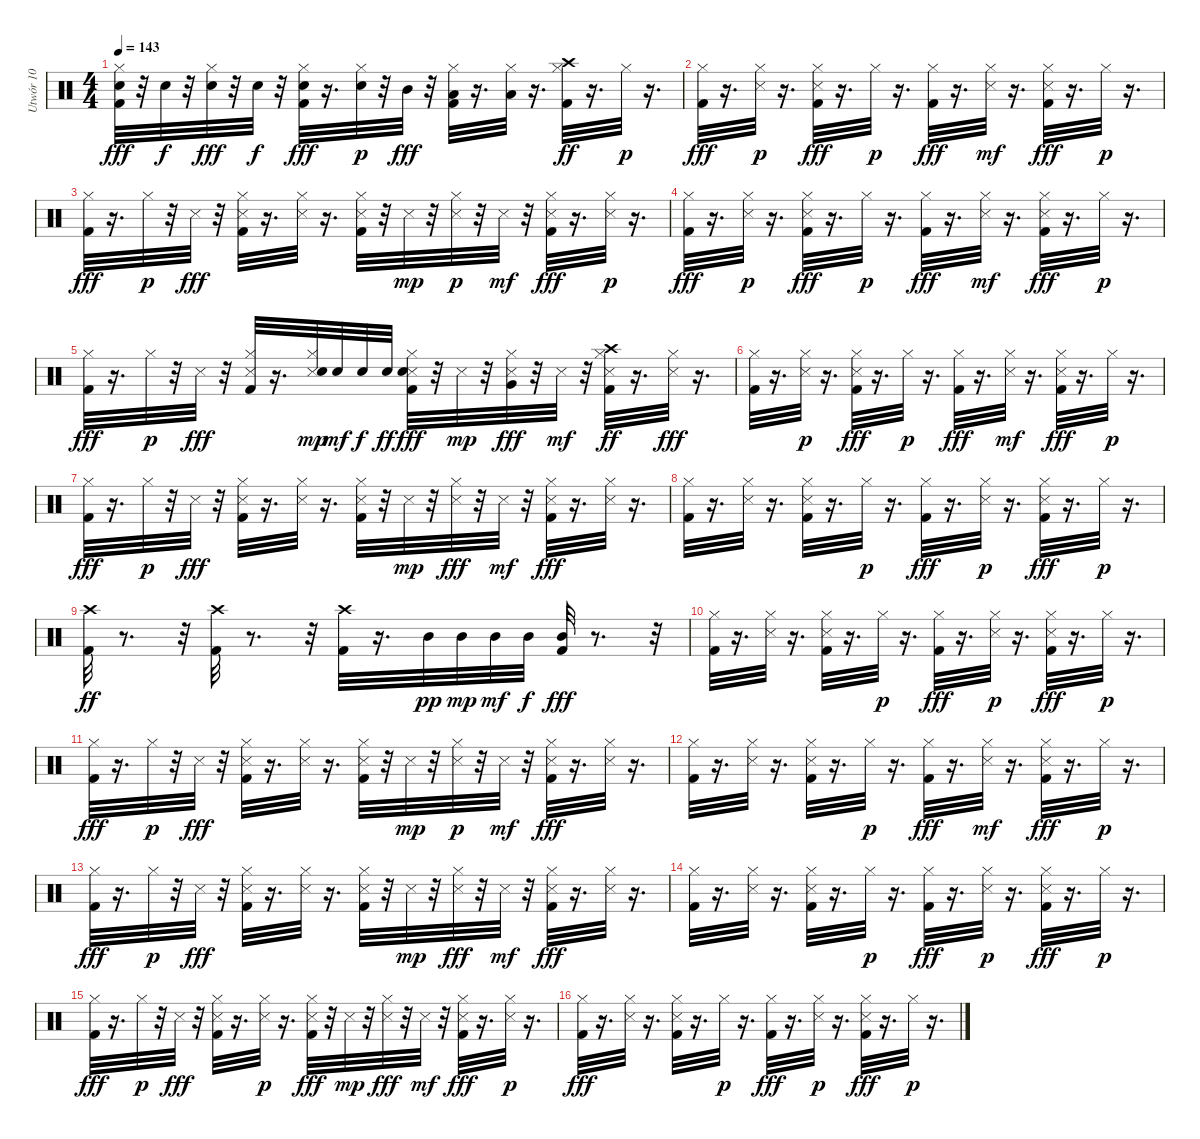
\track ("Utwór 10" "Utwór 10") {instrument percussion}
\staff {score}
\articulation defaults
\ts (4 4)
\tempo 143
\clef neutral
\ks c
("Kick (hit) 2" "Electric Snare (hit)" "Hi-Hat (closed)").32{dy fff} r.32 "Electric Snare (hit)".32{dy f} r.32 ("Hi-Hat (closed)" "Electric Snare (hit)").32{dy fff} r.32 "Electric Snare (hit)".32{dy f} r.32 ("Kick (hit) 2" "Hi-Hat (closed)" "Electric Snare (hit)").32{dy fff} r.16{d} ("Hi-Hat (closed)" "Electric Snare (hit)").32{dy p} r.32 "Mid Tom (hit)".32{dy fff} r.32 ("Kick (hit) 2" "Low Tom (hit)" "Hi-Hat (closed)").32 r.16{d} ("Hi-Hat (closed)" "Low Tom (hit)").32 r.16{d} ("Kick (hit) 2" "Crash high (hit)" "Hi-Hat (closed)").32{dy ff} r.16{d} "Hi-Hat (closed)".32{dy p} r.16{d} |
("Kick (hit) 2" "Hi-Hat (closed)").32{dy fff} r.16{d} ("Snare (side stick) 3" "Hi-Hat (closed)").32{dy p} r.16{d} ("Snare (side stick) 3" "Hi-Hat (closed)" "Kick (hit) 2").32{dy fff} r.16{d} "Hi-Hat (closed)".32{dy p} r.16{d} ("Kick (hit) 2" "Hi-Hat (closed)").32{dy fff} r.16{d} ("Hi-Hat (closed)" "Snare (side stick) 3").32{dy mf} r.16{d} ("Snare (side stick) 3" "Hi-Hat (closed)" "Kick (hit) 2").32{dy fff} r.16{d} "Hi-Hat (closed)".32{dy p} r.16{d} |
("Hi-Hat (closed)" "Kick (hit) 2").32{dy fff} r.16{d} "Hi-Hat (closed)".32{dy p} r.32 "Snare (side stick) 3".32{dy fff} r.32 ("Hi-Hat (closed)" "Kick (hit) 2" "Snare (side stick) 3").32 r.16{d} ("Hi-Hat (closed)" "Snare (side stick) 3").32 r.16{d} ("Kick (hit) 2" "Snare (side stick) 3" "Hi-Hat (closed)").32 r.32 "Snare (side stick) 3".32{dy mp} r.32 ("Snare (side stick) 3" "Hi-Hat (closed)").32{dy p} r.32 "Snare (side stick) 3".32{dy mf} r.32 ("Kick (hit) 2" "Hi-Hat (closed)" "Snare (side stick) 3").32{dy fff} r.16{d} ("Snare (side stick) 3" "Hi-Hat (closed)").32{dy p} r.16{d} |
("Hi-Hat (closed)" "Kick (hit) 2").32{dy fff} r.16{d} ("Snare (side stick) 3" "Hi-Hat (closed)").32{dy p} r.16{d} ("Hi-Hat (closed)" "Kick (hit) 2" "Snare (side stick) 3").32{dy fff} r.16{d} "Hi-Hat (closed)".32{dy p} r.16{d} ("Hi-Hat (closed)" "Kick (hit) 2").32{dy fff} r.16{d} ("Hi-Hat (closed)" "Snare (side stick) 3").32{dy mf} r.16{d} ("Snare (side stick) 3" "Hi-Hat (closed)" "Kick (hit) 2").32{dy fff} r.16{d} "Hi-Hat (closed)".32{dy p} r.16{d} |
("Hi-Hat (closed)" "Kick (hit) 2").32{dy fff} r.16{d} "Hi-Hat (closed)".32{dy p} r.32 "Snare (side stick) 3".32{dy fff} r.32 ("Kick (hit) 2" "Snare (side stick) 3" "Hi-Hat (closed)").32 r.16{d} ("Snare (side stick) 3" "Hi-Hat (closed)" "Electric Snare (hit)").32{dy mp} "Electric Snare (hit)".32{dy mf} "Electric Snare (hit)".32{dy f} "Electric Snare (hit)".32{dy ff} ("Snare (side stick) 3" "Electric Snare (hit)" "Kick (hit) 2" "Hi-Hat (closed)").32{dy fff} r.32 "Snare (side stick) 3".32{dy mp} r.32 ("Hi-Hat (closed)" "Snare (side stick) 3" "Very Low Tom (hit)").32{dy fff} r.32 "Snare (side stick) 3".32{dy mf} r.32 ("Hi-Hat (closed)" "Kick (hit) 2" "Snare (side stick) 3" "Crash high (hit)").32{dy ff} r.16{d} ("Hi-Hat (closed)" "Snare (side stick) 3").32{dy fff} r.16{d} |
("Kick (hit) 2" "Hi-Hat (closed)").32 r.16{d} ("Snare (side stick) 3" "Hi-Hat (closed)").32{dy p} r.16{d} ("Snare (side stick) 3" "Hi-Hat (closed)" "Kick (hit) 2").32{dy fff} r.16{d} "Hi-Hat (closed)".32{dy p} r.16{d} ("Kick (hit) 2" "Hi-Hat (closed)").32{dy fff} r.16{d} ("Hi-Hat (closed)" "Snare (side stick) 3").32{dy mf} r.16{d} ("Kick (hit) 2" "Hi-Hat (closed)" "Snare (side stick) 3").32{dy fff} r.16{d} "Hi-Hat (closed)".32{dy p} r.16{d} |
("Kick (hit) 2" "Hi-Hat (closed)").32{dy fff} r.16{d} "Hi-Hat (closed)".32{dy p} r.32 "Snare (side stick) 3".32{dy fff} r.32 ("Snare (side stick) 3" "Hi-Hat (closed)" "Kick (hit) 2").32 r.16{d} ("Hi-Hat (closed)" "Snare (side stick) 3").32 r.16{d} ("Kick (hit) 2" "Snare (side stick) 3" "Hi-Hat (closed)").32 r.32 "Snare (side stick) 3".32{dy mp} r.32 ("Hi-Hat (closed)" "Snare (side stick) 3").32{dy fff} r.32 "Snare (side stick) 3".32{dy mf} r.32 ("Hi-Hat (closed)" "Kick (hit) 2" "Snare (side stick) 3").32{dy fff} r.16{d} ("Hi-Hat (closed)" "Snare (side stick) 3").32 r.16{d} |
("Hi-Hat (closed)" "Kick (hit) 2").32 r.16{d} ("Hi-Hat (closed)" "Snare (side stick) 3").32 r.16{d} ("Kick (hit) 2" "Snare (side stick) 3" "Hi-Hat (closed)").32 r.16{d} "Hi-Hat (closed)".32{dy p} r.16{d} ("Kick (hit) 2" "Hi-Hat (closed)").32{dy fff} r.16{d} ("Snare (side stick) 3" "Hi-Hat (closed)").32{dy p} r.16{d} ("Kick (hit) 2" "Hi-Hat (closed)" "Snare (side stick) 3").32{dy fff} r.16{d} "Hi-Hat (closed)".32{dy p} r.16{d} |
("Kick (hit) 2" "Crash high (hit)").32{dy ff} r.8{d} r.32 ("Kick (hit) 2" "Crash high (hit)").32 r.8{d} r.32 ("Kick (hit) 2" "Crash high (hit)").32 r.16{d} "Mid Tom (hit)".32{dy pp} "Mid Tom (hit)".32{dy mp} "Mid Tom (hit)".32{dy mf} "Mid Tom (hit)".32{dy f} ("Mid Tom (hit)" "Kick (hit) 2").32{dy fff} r.8{d} r.32 |
("Hi-Hat (closed)" "Kick (hit) 2").32 r.16{d} ("Hi-Hat (closed)" "Snare (side stick) 3").32 r.16{d} ("Kick (hit) 2" "Snare (side stick) 3" "Hi-Hat (closed)").32 r.16{d} "Hi-Hat (closed)".32{dy p} r.16{d} ("Kick (hit) 2" "Hi-Hat (closed)").32{dy fff} r.16{d} ("Snare (side stick) 3" "Hi-Hat (closed)").32{dy p} r.16{d} ("Kick (hit) 2" "Snare (side stick) 3" "Hi-Hat (closed)").32{dy fff} r.16{d} "Hi-Hat (closed)".32{dy p} r.16{d} |
("Kick (hit) 2" "Hi-Hat (closed)").32{dy fff} r.16{d} "Hi-Hat (closed)".32{dy p} r.32 "Snare (side stick) 3".32{dy fff} r.32 ("Kick (hit) 2" "Hi-Hat (closed)" "Snare (side stick) 3").32 r.16{d} ("Hi-Hat (closed)" "Snare (side stick) 3").32 r.16{d} ("Snare (side stick) 3" "Kick (hit) 2" "Hi-Hat (closed)").32 r.32 "Snare (side stick) 3".32{dy mp} r.32 ("Snare (side stick) 3" "Hi-Hat (closed)").32{dy p} r.32 "Snare (side stick) 3".32{dy mf} r.32 ("Snare (side stick) 3" "Kick (hit) 2" "Hi-Hat (closed)").32{dy fff} r.16{d} ("Hi-Hat (closed)" "Snare (side stick) 3").32 r.16{d} |
("Hi-Hat (closed)" "Kick (hit) 2").32 r.16{d} ("Hi-Hat (closed)" "Snare (side stick) 3").32 r.16{d} ("Snare (side stick) 3" "Kick (hit) 2" "Hi-Hat (closed)").32 r.16{d} "Hi-Hat (closed)".32{dy p} r.16{d} ("Hi-Hat (closed)" "Kick (hit) 2").32{dy fff} r.16{d} ("Hi-Hat (closed)" "Snare (side stick) 3").32{dy mf} r.16{d} ("Snare (side stick) 3" "Kick (hit) 2" "Hi-Hat (closed)").32{dy fff} r.16{d} "Hi-Hat (closed)".32{dy p} r.16{d} |
("Kick (hit) 2" "Hi-Hat (closed)").32{dy fff} r.16{d} "Hi-Hat (closed)".32{dy p} r.32 "Snare (side stick) 3".32{dy fff} r.32 ("Snare (side stick) 3" "Hi-Hat (closed)" "Kick (hit) 2").32 r.16{d} ("Hi-Hat (closed)" "Snare (side stick) 3").32 r.16{d} ("Snare (side stick) 3" "Kick (hit) 2" "Hi-Hat (closed)").32 r.32 "Snare (side stick) 3".32{dy mp} r.32 ("Hi-Hat (closed)" "Snare (side stick) 3").32{dy fff} r.32 "Snare (side stick) 3".32{dy mf} r.32 ("Hi-Hat (closed)" "Kick (hit) 2" "Snare (side stick) 3").32{dy fff} r.16{d} ("Hi-Hat (closed)" "Snare (side stick) 3").32 r.16{d} |
("Hi-Hat (closed)" "Kick (hit) 2").32 r.16{d} ("Hi-Hat (closed)" "Snare (side stick) 3").32 r.16{d} ("Snare (side stick) 3" "Kick (hit) 2" "Hi-Hat (closed)").32 r.16{d} "Hi-Hat (closed)".32{dy p} r.16{d} ("Kick (hit) 2" "Hi-Hat (closed)").32{dy fff} r.16{d} ("Snare (side stick) 3" "Hi-Hat (closed)").32{dy p} r.16{d} ("Kick (hit) 2" "Snare (side stick) 3" "Hi-Hat (closed)").32{dy fff} r.16{d} "Hi-Hat (closed)".32{dy p} r.16{d} |
("Kick (hit) 2" "Hi-Hat (closed)").32{dy fff} r.16{d} "Hi-Hat (closed)".32{dy p} r.32 "Snare (side stick) 3".32{dy fff} r.32 ("Hi-Hat (closed)" "Kick (hit) 2" "Snare (side stick) 3").32 r.16{d} ("Snare (side stick) 3" "Hi-Hat (closed)").32{dy p} r.16{d} ("Kick (hit) 2" "Snare (side stick) 3" "Hi-Hat (closed)").32{dy fff} r.32 "Snare (side stick) 3".32{dy mp} r.32 ("Hi-Hat (closed)" "Snare (side stick) 3").32{dy fff} r.32 "Snare (side stick) 3".32{dy mf} r.32 ("Snare (side stick) 3" "Hi-Hat (closed)" "Kick (hit) 2").32{dy fff} r.16{d} ("Snare (side stick) 3" "Hi-Hat (closed)").32{dy p} r.16{d} |
("Kick (hit) 2" "Hi-Hat (closed)").32{dy fff} r.16{d} ("Hi-Hat (closed)" "Snare (side stick) 3").32 r.16{d} ("Snare (side stick) 3" "Kick (hit) 2" "Hi-Hat (closed)").32 r.16{d} "Hi-Hat (closed)".32{dy p} r.16{d} ("Kick (hit) 2" "Hi-Hat (closed)").32{dy fff} r.16{d} ("Snare (side stick) 3" "Hi-Hat (closed)").32{dy p} r.16{d} ("Hi-Hat (closed)" "Snare (side stick) 3" "Kick (hit) 2").32{dy fff} r.16{d} "Hi-Hat (closed)".32{dy p} r.16{d}
